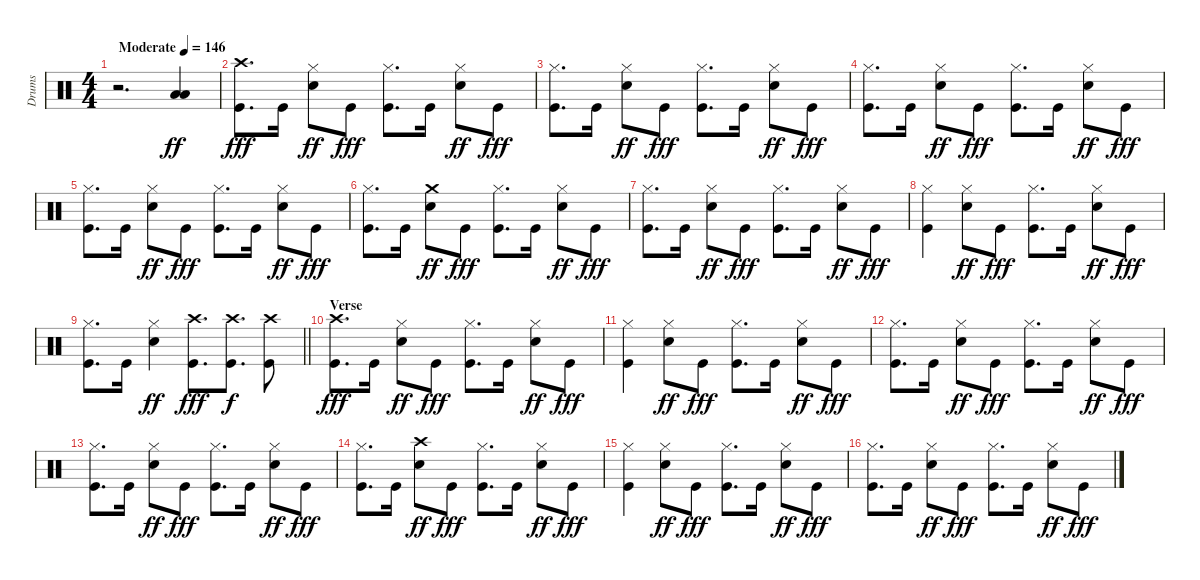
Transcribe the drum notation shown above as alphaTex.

\track ("Drums" "Drums") {instrument percussion}
\staff {score}
\articulation defaults
\ts (4 4)
\tempo (146 "Moderate")
\clef neutral
\ks c
r.2{d dy ff} ("Low Tom (hit)" "Low Floor Tom (hit)").4 |
("Kick (hit)" "Crash high (hit)").8{d dy fff} "Kick (hit)".16 ("Snare (hit) 2" "Hi-Hat (closed)").8{dy ff} "Kick (hit)".8{dy fff} ("Kick (hit)" "Hi-Hat (closed)").8{d} "Kick (hit)".16 ("Snare (hit) 2" "Hi-Hat (closed)").8{dy ff} "Kick (hit)".8{dy fff} |
("Kick (hit)" "Hi-Hat (closed)").8{d} "Kick (hit)".16 ("Snare (hit) 2" "Hi-Hat (closed)").8{dy ff} "Kick (hit)".8{dy fff} ("Kick (hit)" "Hi-Hat (closed)").8{d} "Kick (hit)".16 ("Snare (hit) 2" "Hi-Hat (closed)").8{dy ff} "Kick (hit)".8{dy fff} |
("Kick (hit)" "Hi-Hat (closed)").8{d} "Kick (hit)".16 ("Snare (hit) 2" "Hi-Hat (closed)").8{dy ff} "Kick (hit)".8{dy fff} ("Kick (hit)" "Hi-Hat (closed)").8{d} "Kick (hit)".16 ("Snare (hit) 2" "Hi-Hat (closed)").8{dy ff} "Kick (hit)".8{dy fff} |
("Kick (hit)" "Hi-Hat (closed)").8{d} "Kick (hit)".16 ("Snare (hit) 2" "Hi-Hat (closed)").8{dy ff} "Kick (hit)".8{dy fff} ("Kick (hit)" "Hi-Hat (closed)").8{d} "Kick (hit)".16 ("Snare (hit) 2" "Hi-Hat (closed)").8{dy ff} "Kick (hit)".8{dy fff} |
("Kick (hit)" "Hi-Hat (closed)").8{d} "Kick (hit)".16 ("Snare (hit) 2" "Crash medium (hit)").8{dy ff} "Kick (hit)".8{dy fff} ("Kick (hit)" "Hi-Hat (closed)").8{d} "Kick (hit)".16 ("Snare (hit) 2" "Hi-Hat (closed)").8{dy ff} "Kick (hit)".8{dy fff} |
("Kick (hit)" "Hi-Hat (closed)").8{d} "Kick (hit)".16 ("Snare (hit) 2" "Hi-Hat (closed)").8{dy ff} "Kick (hit)".8{dy fff} ("Kick (hit)" "Hi-Hat (closed)").8{d} "Kick (hit)".16 ("Snare (hit) 2" "Hi-Hat (closed)").8{dy ff} "Kick (hit)".8{dy fff} |
("Kick (hit)" "Hi-Hat (closed)").4 ("Snare (hit) 2" "Hi-Hat (closed)").8{dy ff} "Kick (hit)".8{dy fff} ("Kick (hit)" "Hi-Hat (closed)").8{d} "Kick (hit)".16 ("Snare (hit) 2" "Hi-Hat (closed)").8{dy ff} "Kick (hit)".8{dy fff} |
\barLineRight lightlight
("Kick (hit)" "Hi-Hat (closed)").8{d} "Kick (hit)".16 ("Snare (hit) 2" "Hi-Hat (closed)").4{dy ff} ("Kick (hit)" "Crash high (hit)").8{d dy fff} ("Crash high (hit)" "Kick (hit)").8{d dy f} ("Crash high (hit)" "Kick (hit)").8 |
\section ("" "Verse")
("Kick (hit)" "Crash high (hit)").8{d dy fff} "Kick (hit)".16 ("Snare (hit) 2" "Hi-Hat (closed)").8{dy ff} "Kick (hit)".8{dy fff} ("Kick (hit)" "Hi-Hat (closed)").8{d} "Kick (hit)".16 ("Snare (hit) 2" "Hi-Hat (closed)").8{dy ff} "Kick (hit)".8{dy fff} |
("Kick (hit)" "Hi-Hat (closed)").4 ("Snare (hit) 2" "Hi-Hat (closed)").8{dy ff} "Kick (hit)".8{dy fff} ("Kick (hit)" "Hi-Hat (closed)").8{d} "Kick (hit)".16 ("Snare (hit) 2" "Hi-Hat (closed)").8{dy ff} "Kick (hit)".8{dy fff} |
("Kick (hit)" "Hi-Hat (closed)").8{d} "Kick (hit)".16 ("Snare (hit) 2" "Hi-Hat (closed)").8{dy ff} "Kick (hit)".8{dy fff} ("Kick (hit)" "Hi-Hat (closed)").8{d} "Kick (hit)".16 ("Snare (hit) 2" "Hi-Hat (closed)").8{dy ff} "Kick (hit)".8{dy fff} |
("Kick (hit)" "Hi-Hat (closed)").8{d} "Kick (hit)".16 ("Snare (hit) 2" "Hi-Hat (closed)").8{dy ff} "Kick (hit)".8{dy fff} ("Kick (hit)" "Hi-Hat (closed)").8{d} "Kick (hit)".16 ("Snare (hit) 2" "Hi-Hat (closed)").8{dy ff} "Kick (hit)".8{dy fff} |
("Kick (hit)" "Hi-Hat (closed)").8{d} "Kick (hit)".16 ("Snare (hit) 2" "Crash high (hit)").8{dy ff} "Kick (hit)".8{dy fff} ("Kick (hit)" "Hi-Hat (closed)").8{d} "Kick (hit)".16 ("Snare (hit) 2" "Hi-Hat (closed)").8{dy ff} "Kick (hit)".8{dy fff} |
("Kick (hit)" "Hi-Hat (closed)").4 ("Snare (hit) 2" "Hi-Hat (closed)").8{dy ff} "Kick (hit)".8{dy fff} ("Kick (hit)" "Hi-Hat (closed)").8{d} "Kick (hit)".16 ("Snare (hit) 2" "Hi-Hat (closed)").8{dy ff} "Kick (hit)".8{dy fff} |
("Kick (hit)" "Hi-Hat (closed)").8{d} "Kick (hit)".16 ("Snare (hit) 2" "Hi-Hat (closed)").8{dy ff} "Kick (hit)".8{dy fff} ("Kick (hit)" "Hi-Hat (closed)").8{d} "Kick (hit)".16 ("Snare (hit) 2" "Hi-Hat (closed)").8{dy ff} "Kick (hit)".8{dy fff}
